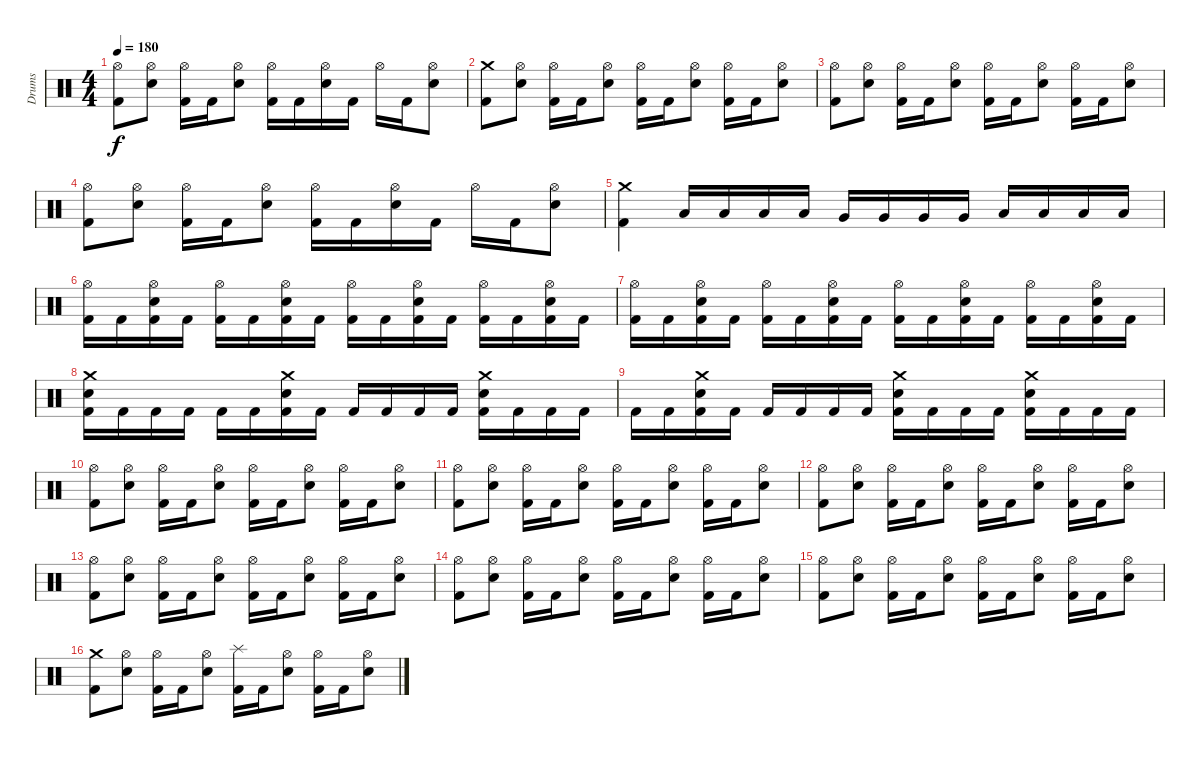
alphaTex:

\track ("Drums" "Drums") {instrument percussion}
\staff {score}
\articulation defaults
\ts (4 4)
\tempo 180
\clef neutral
\ks c
("Hi-Hat (open)" "Kick (hit) 2").8{dy f} ("Hi-Hat (open)" "Electric Snare (hit)").8 ("Hi-Hat (open)" "Kick (hit) 2").16 "Kick (hit) 2".16 ("Hi-Hat (open)" "Electric Snare (hit)").8 ("Hi-Hat (open)" "Kick (hit) 2").16 "Kick (hit) 2".16 ("Hi-Hat (open)" "Electric Snare (hit)").16 "Kick (hit) 2".16 "Hi-Hat (open)".16 "Kick (hit) 2".16 ("Hi-Hat (open)" "Electric Snare (hit)").8 |
("Crash medium (hit)" "Kick (hit) 2").8 ("Hi-Hat (open)" "Electric Snare (hit)").8 ("Hi-Hat (open)" "Kick (hit) 2").16 "Kick (hit) 2".16 ("Hi-Hat (open)" "Electric Snare (hit)").8 ("Hi-Hat (open)" "Kick (hit) 2").16 "Kick (hit) 2".16 ("Hi-Hat (open)" "Electric Snare (hit)").8 ("Hi-Hat (open)" "Kick (hit) 2").16 "Kick (hit) 2".16 ("Hi-Hat (open)" "Electric Snare (hit)").8 |
("Hi-Hat (open)" "Kick (hit) 2").8 ("Hi-Hat (open)" "Electric Snare (hit)").8 ("Hi-Hat (open)" "Kick (hit) 2").16 "Kick (hit) 2".16 ("Hi-Hat (open)" "Electric Snare (hit)").8 ("Hi-Hat (open)" "Kick (hit) 2").16 "Kick (hit) 2".16 ("Hi-Hat (open)" "Electric Snare (hit)").8 ("Hi-Hat (open)" "Kick (hit) 2").16 "Kick (hit) 2".16 ("Hi-Hat (open)" "Electric Snare (hit)").8 |
("Hi-Hat (open)" "Kick (hit) 2").8 ("Hi-Hat (open)" "Electric Snare (hit)").8 ("Hi-Hat (open)" "Kick (hit) 2").16 "Kick (hit) 2".16 ("Hi-Hat (open)" "Electric Snare (hit)").8 ("Hi-Hat (open)" "Kick (hit) 2").16 "Kick (hit) 2".16 ("Hi-Hat (open)" "Electric Snare (hit)").16 "Kick (hit) 2".16 "Hi-Hat (open)".16 "Kick (hit) 2".16 ("Hi-Hat (open)" "Electric Snare (hit)").8 |
("Crash medium (hit)" "Kick (hit) 2").4 "Low Tom (hit)".16 "Low Tom (hit)".16 "Low Tom (hit)".16 "Low Tom (hit)".16 "Very Low Tom (hit)".16 "Very Low Tom (hit)".16 "Very Low Tom (hit)".16 "Very Low Tom (hit)".16 "Low Floor Tom (hit)".16 "Low Floor Tom (hit)".16 "Low Floor Tom (hit)".16 "Low Floor Tom (hit)".16 |
("Kick (hit) 2" "Hi-Hat (open)").16 "Kick (hit) 2".16 ("Kick (hit) 2" "Hi-Hat (open)" "Electric Snare (hit)").16 "Kick (hit) 2".16 ("Kick (hit) 2" "Hi-Hat (open)").16 "Kick (hit) 2".16 ("Kick (hit) 2" "Hi-Hat (open)" "Electric Snare (hit)").16 "Kick (hit) 2".16 ("Kick (hit) 2" "Hi-Hat (open)").16 "Kick (hit) 2".16 ("Kick (hit) 2" "Hi-Hat (open)" "Electric Snare (hit)").16 "Kick (hit) 2".16 ("Kick (hit) 2" "Hi-Hat (open)").16 "Kick (hit) 2".16 ("Kick (hit) 2" "Hi-Hat (open)" "Electric Snare (hit)").16 "Kick (hit) 2".16 |
("Kick (hit) 2" "Hi-Hat (open)").16 "Kick (hit) 2".16 ("Kick (hit) 2" "Hi-Hat (open)" "Electric Snare (hit)").16 "Kick (hit) 2".16 ("Kick (hit) 2" "Hi-Hat (open)").16 "Kick (hit) 2".16 ("Kick (hit) 2" "Hi-Hat (open)" "Electric Snare (hit)").16 "Kick (hit) 2".16 ("Kick (hit) 2" "Hi-Hat (open)").16 "Kick (hit) 2".16 ("Kick (hit) 2" "Hi-Hat (open)" "Electric Snare (hit)").16 "Kick (hit) 2".16 ("Kick (hit) 2" "Hi-Hat (open)").16 "Kick (hit) 2".16 ("Kick (hit) 2" "Hi-Hat (open)" "Electric Snare (hit)").16 "Kick (hit) 2".16 |
("Kick (hit) 2" "Crash medium (hit)" "Electric Snare (hit)").16 "Kick (hit) 2".16 "Kick (hit) 2".16 "Kick (hit) 2".16 "Kick (hit) 2".16 "Kick (hit) 2".16 ("Kick (hit) 2" "Crash medium (hit)" "Electric Snare (hit)").16 "Kick (hit) 2".16 "Kick (hit) 2".16 "Kick (hit) 2".16 "Kick (hit) 2".16 "Kick (hit) 2".16 ("Kick (hit) 2" "Crash medium (hit)" "Electric Snare (hit)").16 "Kick (hit) 2".16 "Kick (hit) 2".16 "Kick (hit) 2".16 |
"Kick (hit) 2".16 "Kick (hit) 2".16 ("Kick (hit) 2" "Crash medium (hit)" "Electric Snare (hit)").16 "Kick (hit) 2".16 "Kick (hit) 2".16 "Kick (hit) 2".16 "Kick (hit) 2".16 "Kick (hit) 2".16 ("Kick (hit) 2" "Crash medium (hit)" "Electric Snare (hit)").16 "Kick (hit) 2".16 "Kick (hit) 2".16 "Kick (hit) 2".16 ("Kick (hit) 2" "Crash medium (hit)" "Electric Snare (hit)").16 "Kick (hit) 2".16 "Kick (hit) 2".16 "Kick (hit) 2".16 |
("Hi-Hat (open)" "Kick (hit) 2").8 ("Hi-Hat (open)" "Electric Snare (hit)").8 ("Hi-Hat (open)" "Kick (hit) 2").16 "Kick (hit) 2".16 ("Hi-Hat (open)" "Electric Snare (hit)").8 ("Hi-Hat (open)" "Kick (hit) 2").16 "Kick (hit) 2".16 ("Hi-Hat (open)" "Electric Snare (hit)").8 ("Hi-Hat (open)" "Kick (hit) 2").16 "Kick (hit) 2".16 ("Hi-Hat (open)" "Electric Snare (hit)").8 |
("Hi-Hat (open)" "Kick (hit) 2").8 ("Hi-Hat (open)" "Electric Snare (hit)").8 ("Hi-Hat (open)" "Kick (hit) 2").16 "Kick (hit) 2".16 ("Hi-Hat (open)" "Electric Snare (hit)").8 ("Hi-Hat (open)" "Kick (hit) 2").16 "Kick (hit) 2".16 ("Hi-Hat (open)" "Electric Snare (hit)").8 ("Hi-Hat (open)" "Kick (hit) 2").16 "Kick (hit) 2".16 ("Hi-Hat (open)" "Electric Snare (hit)").8 |
("Hi-Hat (open)" "Kick (hit) 2").8 ("Hi-Hat (open)" "Electric Snare (hit)").8 ("Hi-Hat (open)" "Kick (hit) 2").16 "Kick (hit) 2".16 ("Hi-Hat (open)" "Electric Snare (hit)").8 ("Hi-Hat (open)" "Kick (hit) 2").16 "Kick (hit) 2".16 ("Hi-Hat (open)" "Electric Snare (hit)").8 ("Hi-Hat (open)" "Kick (hit) 2").16 "Kick (hit) 2".16 ("Hi-Hat (open)" "Electric Snare (hit)").8 |
("Hi-Hat (open)" "Kick (hit) 2").8 ("Hi-Hat (open)" "Electric Snare (hit)").8 ("Hi-Hat (open)" "Kick (hit) 2").16 "Kick (hit) 2".16 ("Hi-Hat (open)" "Electric Snare (hit)").8 ("Hi-Hat (open)" "Kick (hit) 2").16 "Kick (hit) 2".16 ("Hi-Hat (open)" "Electric Snare (hit)").8 ("Hi-Hat (open)" "Kick (hit) 2").16 "Kick (hit) 2".16 ("Hi-Hat (open)" "Electric Snare (hit)").8 |
("Hi-Hat (open)" "Kick (hit) 2").8 ("Hi-Hat (open)" "Electric Snare (hit)").8 ("Hi-Hat (open)" "Kick (hit) 2").16 "Kick (hit) 2".16 ("Hi-Hat (open)" "Electric Snare (hit)").8 ("Hi-Hat (open)" "Kick (hit) 2").16 "Kick (hit) 2".16 ("Hi-Hat (open)" "Electric Snare (hit)").8 ("Hi-Hat (open)" "Kick (hit) 2").16 "Kick (hit) 2".16 ("Hi-Hat (open)" "Electric Snare (hit)").8 |
("Hi-Hat (open)" "Kick (hit) 2").8 ("Hi-Hat (open)" "Electric Snare (hit)").8 ("Hi-Hat (open)" "Kick (hit) 2").16 "Kick (hit) 2".16 ("Hi-Hat (open)" "Electric Snare (hit)").8 ("Hi-Hat (open)" "Kick (hit) 2").16 "Kick (hit) 2".16 ("Hi-Hat (open)" "Electric Snare (hit)").8 ("Hi-Hat (open)" "Kick (hit) 2").16 "Kick (hit) 2".16 ("Hi-Hat (open)" "Electric Snare (hit)").8 |
("Crash medium (hit)" "Kick (hit) 2").8 ("Hi-Hat (open)" "Electric Snare (hit)").8 ("Hi-Hat (open)" "Kick (hit) 2").16 "Kick (hit) 2".16 ("Hi-Hat (open)" "Electric Snare (hit)").8 ("Splash (hit)" "Kick (hit) 2").16 "Kick (hit) 2".16 ("Hi-Hat (open)" "Electric Snare (hit)").8 ("Hi-Hat (open)" "Kick (hit) 2").16 "Kick (hit) 2".16 ("Hi-Hat (open)" "Electric Snare (hit)").8
